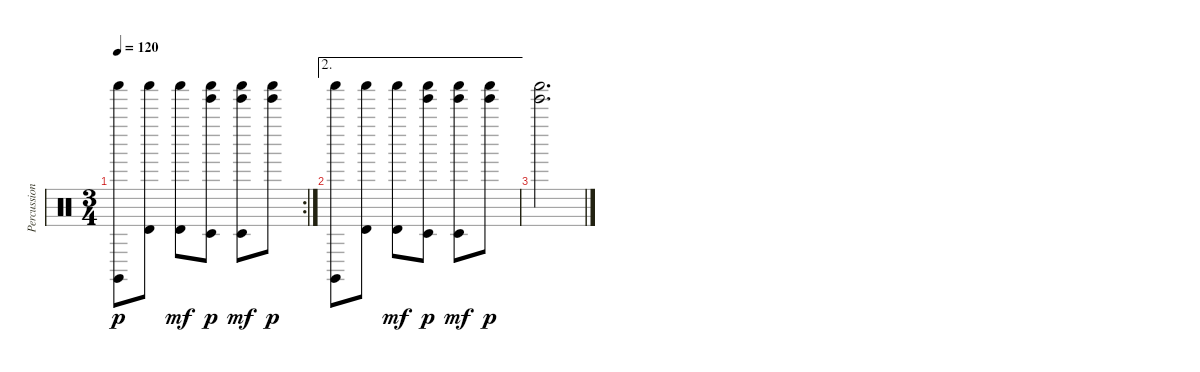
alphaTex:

\track ("Percussion" "Percussion") {instrument percussion}
\staff {score}
\articulation defaults
\rc 2
\ts (3 4)
\tempo 120
\clef neutral
\ks c
("Shaker (hit)" "Claves (hit)").8{dy p} ("Shaker (hit)" "Timbale high (hit)").8 ("Shaker (hit)" "Timbale high (hit)").8{dy mf} ("Shaker (hit)" "Tinkle Bell (hit)" "Timbale low (hit)").8{dy p} ("Shaker (hit)" "Tinkle Bell (hit)" "Timbale low (hit)").8{dy mf} ("Shaker (hit)" "Tinkle Bell (hit)").8{dy p} |
\ae 2
("Shaker (hit)" "Claves (hit)").8 ("Shaker (hit)" "Timbale high (hit)").8 ("Shaker (hit)" "Timbale high (hit)").8{dy mf} ("Shaker (hit)" "Tinkle Bell (hit)" "Timbale low (hit)").8{dy p} ("Shaker (hit)" "Tinkle Bell (hit)" "Timbale low (hit)").8{dy mf} ("Shaker (hit)" "Tinkle Bell (hit)").8{dy p} |
("Shaker (hit)" "Tinkle Bell (hit)").2{d}
